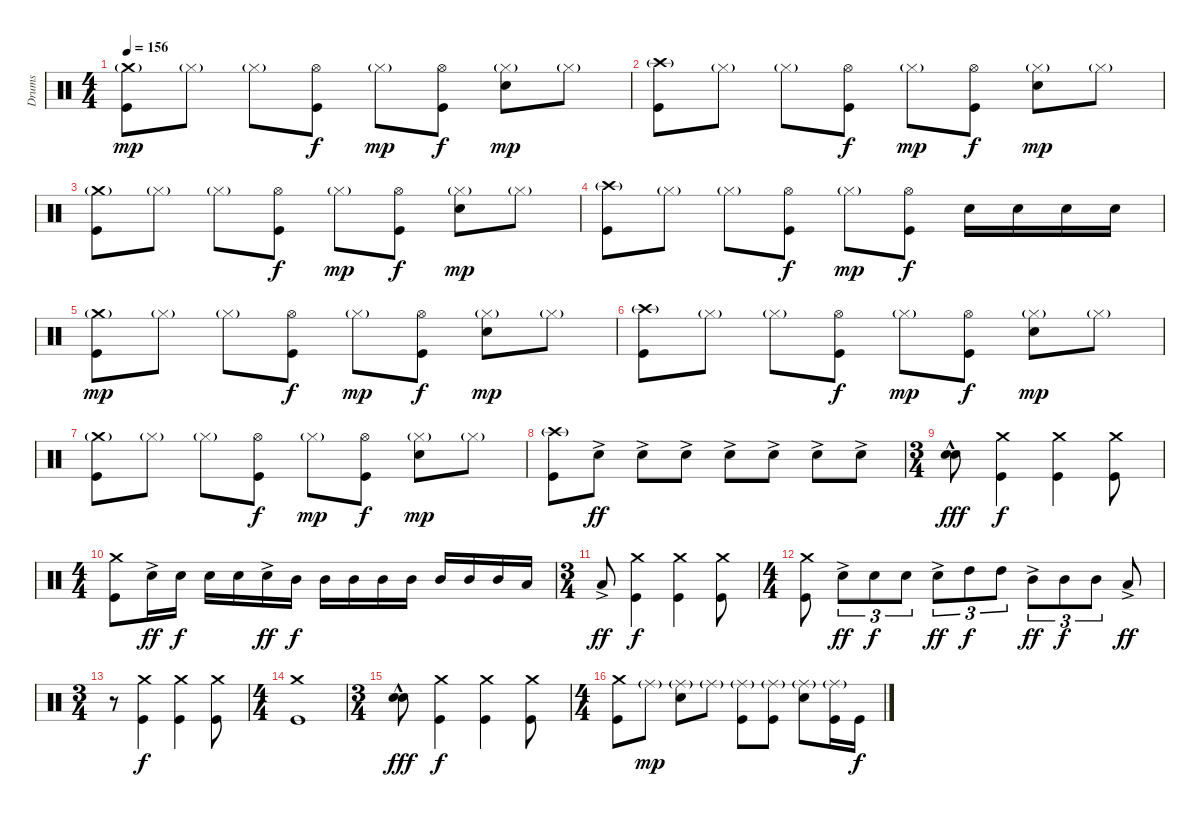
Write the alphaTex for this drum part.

\track ("Drums" "Drums") {instrument percussion}
\staff {score}
\articulation defaults
\ts (4 4)
\tempo 156
\clef neutral
\ks c
("Crash medium (hit)"{g} "Kick (hit)").8{dy mp} "Hi-Hat (closed)"{g}.8 "Hi-Hat (closed)"{g}.8 ("Hi-Hat (open)" "Kick (hit)").8{dy f} "Hi-Hat (closed)"{g}.8{dy mp} ("Hi-Hat (open)" "Kick (hit)").8{dy f} ("Hi-Hat (closed)"{g} "Electric Snare (hit)").8{dy mp} "Hi-Hat (closed)"{g}.8 |
("Crash high (hit)"{g} "Kick (hit)").8 "Hi-Hat (closed)"{g}.8 "Hi-Hat (closed)"{g}.8 ("Hi-Hat (open)" "Kick (hit)").8{dy f} "Hi-Hat (closed)"{g}.8{dy mp} ("Hi-Hat (open)" "Kick (hit)").8{dy f} ("Hi-Hat (closed)"{g} "Electric Snare (hit)").8{dy mp} "Hi-Hat (closed)"{g}.8 |
("Crash medium (hit)"{g} "Kick (hit)").8 "Hi-Hat (closed)"{g}.8 "Hi-Hat (closed)"{g}.8 ("Hi-Hat (open)" "Kick (hit)").8{dy f} "Hi-Hat (closed)"{g}.8{dy mp} ("Hi-Hat (open)" "Kick (hit)").8{dy f} ("Hi-Hat (closed)"{g} "Electric Snare (hit)").8{dy mp} "Hi-Hat (closed)"{g}.8 |
("Crash high (hit)"{g} "Kick (hit)").8 "Hi-Hat (closed)"{g}.8 "Hi-Hat (closed)"{g}.8 ("Hi-Hat (open)" "Kick (hit)").8{dy f} "Hi-Hat (closed)"{g}.8{dy mp} ("Hi-Hat (open)" "Kick (hit)").8{dy f} "Electric Snare (hit)".16 "Electric Snare (hit)".16 "Electric Snare (hit)".16 "Electric Snare (hit)".16 |
("Crash medium (hit)"{g} "Kick (hit)").8{dy mp} "Hi-Hat (closed)"{g}.8 "Hi-Hat (closed)"{g}.8 ("Hi-Hat (open)" "Kick (hit)").8{dy f} "Hi-Hat (closed)"{g}.8{dy mp} ("Hi-Hat (open)" "Kick (hit)").8{dy f} ("Hi-Hat (closed)"{g} "Electric Snare (hit)").8{dy mp} "Hi-Hat (closed)"{g}.8 |
("Crash high (hit)"{g} "Kick (hit)").8 "Hi-Hat (closed)"{g}.8 "Hi-Hat (closed)"{g}.8 ("Hi-Hat (open)" "Kick (hit)").8{dy f} "Hi-Hat (closed)"{g}.8{dy mp} ("Hi-Hat (open)" "Kick (hit)").8{dy f} ("Hi-Hat (closed)"{g} "Electric Snare (hit)").8{dy mp} "Hi-Hat (closed)"{g}.8 |
("Crash medium (hit)"{g} "Kick (hit)").8 "Hi-Hat (closed)"{g}.8 "Hi-Hat (closed)"{g}.8 ("Hi-Hat (open)" "Kick (hit)").8{dy f} "Hi-Hat (closed)"{g}.8{dy mp} ("Hi-Hat (open)" "Kick (hit)").8{dy f} ("Hi-Hat (closed)"{g} "Electric Snare (hit)").8{dy mp} "Hi-Hat (closed)"{g}.8 |
("Crash high (hit)"{g} "Kick (hit)").8 "Electric Snare (hit)"{ac}.8{dy ff} "Electric Snare (hit)"{ac}.8 "Electric Snare (hit)"{ac}.8 "Electric Snare (hit)"{ac}.8 "Electric Snare (hit)"{ac}.8 "Electric Snare (hit)"{ac}.8 "Electric Snare (hit)"{ac}.8 |
\ts (3 4)
("Electric Snare (hit)" "Electric Snare (hit)"{hac}).8{dy fff} ("Crash medium (hit)" "Kick (hit)").4{dy f} ("Crash medium (hit)" "Kick (hit)").4 ("Crash medium (hit)" "Kick (hit)").8 |
\ts (4 4)
("Crash medium (hit)" "Kick (hit)").8 "Electric Snare (hit)"{ac}.16{dy ff} "Electric Snare (hit)".16{dy f} "Electric Snare (hit)".16 "Electric Snare (hit)".16 "Electric Snare (hit)"{ac}.16{dy ff} "Mid Tom (hit)".16{dy f} "Mid Tom (hit)".16 "Mid Tom (hit)".16 "Mid Tom (hit)".16 "Mid Tom (hit)".16 "Mid Tom (hit)".16 "Mid Tom (hit)".16 "Mid Tom (hit)".16 "Low Tom (hit)".16 |
\ts (3 4)
"Low Tom (hit)"{ac}.8{dy ff} ("Crash medium (hit)" "Kick (hit)").4{dy f} ("Crash medium (hit)" "Kick (hit)").4 ("Crash medium (hit)" "Kick (hit)").8 |
\ts (4 4)
("Crash medium (hit)" "Kick (hit)").8 "Electric Snare (hit)"{ac}.8{tu (3 2) dy ff} "Electric Snare (hit)".8{tu (3 2) dy f} "Electric Snare (hit)".8{tu (3 2)} "Electric Snare (hit)"{ac}.8{tu (3 2) dy ff} "High Tom (hit)".8{tu (3 2) dy f} "High Tom (hit)".8{tu (3 2)} "Mid Tom (hit)"{ac}.8{tu (3 2) dy ff} "Mid Tom (hit)".8{tu (3 2) dy f} "Mid Tom (hit)".8{tu (3 2)} "Low Tom (hit)"{ac}.8{dy ff} |
\ts (3 4)
r.8 ("Crash medium (hit)" "Kick (hit)").4{dy f} ("Crash medium (hit)" "Kick (hit)").4 ("Crash medium (hit)" "Kick (hit)").8 |
\ts (4 4)
("Crash medium (hit)" "Kick (hit)").1 |
\ts (3 4)
("Electric Snare (hit)" "Electric Snare (hit)"{hac}).8{dy fff} ("Crash medium (hit)" "Kick (hit)").4{dy f} ("Crash medium (hit)" "Kick (hit)").4 ("Crash medium (hit)" "Kick (hit)").8 |
\ts (4 4)
("Crash medium (hit)" "Kick (hit)").8 "Ride (middle)"{g}.8{dy mp} ("Ride (middle)"{g} "Electric Snare (hit)").8 "Ride (middle)"{g}.8 ("Ride (middle)"{g} "Kick (hit)").8 ("Ride (middle)"{g} "Kick (hit)").8 ("Ride (middle)"{g} "Electric Snare (hit)").8 ("Ride (middle)"{g} "Kick (hit)").16 "Kick (hit)".16{dy f}
